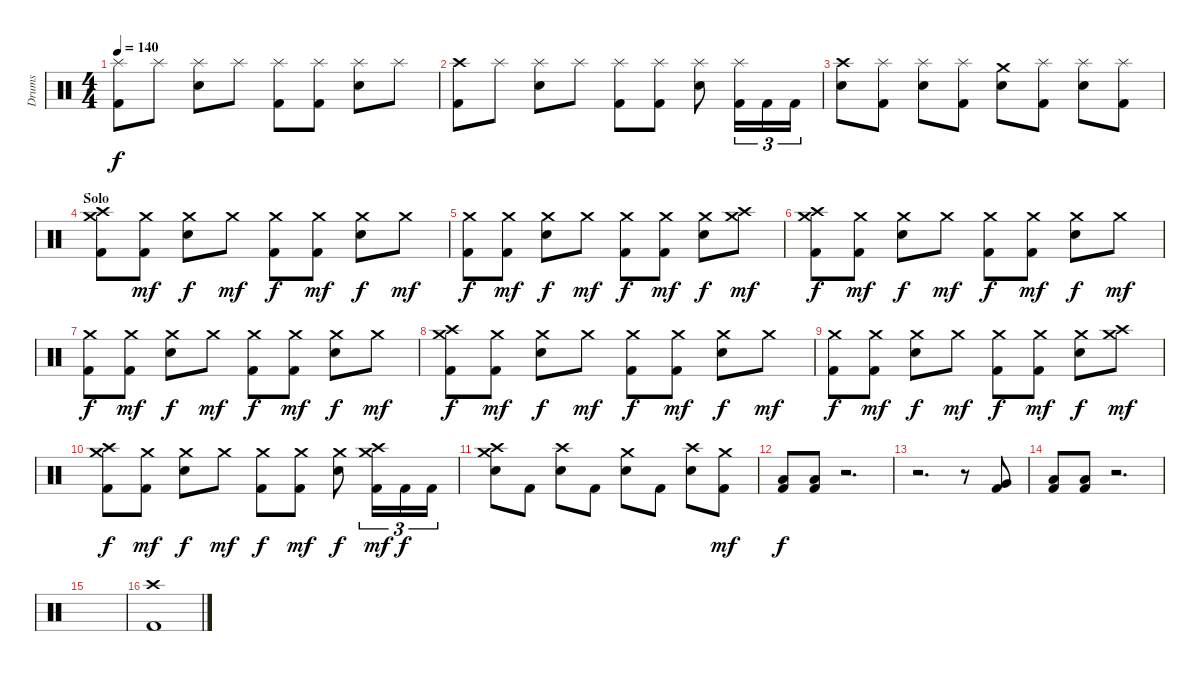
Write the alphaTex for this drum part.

\track ("Drums" "Drums") {instrument percussion}
\staff {score}
\articulation defaults
\ts (4 4)
\tempo 140
\clef neutral
\ks c
("Splash (hit)" "Kick (hit) 2").8{dy f} "Splash (hit)".8 ("Splash (hit)" "Snare (hit) 2").8 "Splash (hit)".8 ("Splash (hit)" "Kick (hit) 2").8 ("Splash (hit)" "Kick (hit) 2").8 ("Splash (hit)" "Snare (hit) 2").8 "Splash (hit)".8 |
("Crash high (hit)" "Kick (hit) 2").8 "Splash (hit)".8 ("Splash (hit)" "Snare (hit) 2").8 "Splash (hit)".8 ("Splash (hit)" "Kick (hit) 2").8 ("Splash (hit)" "Kick (hit) 2").8 ("Splash (hit)" "Snare (hit) 2").8 ("Splash (hit)" "Kick (hit) 2").16{tu (3 2)} "Kick (hit) 2".16{tu (3 2)} "Kick (hit) 2".16{tu (3 2)} |
("Crash high (hit)" "Snare (hit) 2").8 ("Splash (hit)" "Kick (hit) 2").8 ("Splash (hit)" "Snare (hit) 2").8 ("Splash (hit)" "Kick (hit) 2").8 ("Crash medium (hit)" "Snare (hit) 2").8 ("Splash (hit)" "Kick (hit) 2").8 ("Splash (hit)" "Snare (hit) 2").8 ("Splash (hit)" "Kick (hit) 2").8 |
\section ("" "Solo")
("Crash high (hit)" "Crash medium (hit)" "Kick (hit) 2").8 ("Crash medium (hit)" "Kick (hit) 2").8{dy mf} ("Crash medium (hit)" "Snare (hit) 2").8{dy f} "Crash medium (hit)".8{dy mf} ("Crash medium (hit)" "Kick (hit) 2").8{dy f} ("Crash medium (hit)" "Kick (hit) 2").8{dy mf} ("Crash medium (hit)" "Snare (hit) 2").8{dy f} "Crash medium (hit)".8{dy mf} |
("Crash medium (hit)" "Kick (hit) 2").8{dy f} ("Crash medium (hit)" "Kick (hit) 2").8{dy mf} ("Crash medium (hit)" "Snare (hit) 2").8{dy f} "Crash medium (hit)".8{dy mf} ("Crash medium (hit)" "Kick (hit) 2").8{dy f} ("Crash medium (hit)" "Kick (hit) 2").8{dy mf} ("Crash medium (hit)" "Snare (hit) 2").8{dy f} ("Crash high (hit)" "Crash medium (hit)").8{dy mf} |
("Crash high (hit)" "Crash medium (hit)" "Kick (hit) 2").8{dy f} ("Crash medium (hit)" "Kick (hit) 2").8{dy mf} ("Crash medium (hit)" "Snare (hit) 2").8{dy f} "Crash medium (hit)".8{dy mf} ("Crash medium (hit)" "Kick (hit) 2").8{dy f} ("Crash medium (hit)" "Kick (hit) 2").8{dy mf} ("Crash medium (hit)" "Snare (hit) 2").8{dy f} "Crash medium (hit)".8{dy mf} |
("Crash medium (hit)" "Kick (hit) 2").8{dy f} ("Crash medium (hit)" "Kick (hit) 2").8{dy mf} ("Crash medium (hit)" "Snare (hit) 2").8{dy f} "Crash medium (hit)".8{dy mf} ("Crash medium (hit)" "Kick (hit) 2").8{dy f} ("Crash medium (hit)" "Kick (hit) 2").8{dy mf} ("Crash medium (hit)" "Snare (hit) 2").8{dy f} "Crash medium (hit)".8{dy mf} |
("Crash high (hit)" "Crash medium (hit)" "Kick (hit) 2").8{dy f} ("Crash medium (hit)" "Kick (hit) 2").8{dy mf} ("Crash medium (hit)" "Snare (hit) 2").8{dy f} "Crash medium (hit)".8{dy mf} ("Crash medium (hit)" "Kick (hit) 2").8{dy f} ("Crash medium (hit)" "Kick (hit) 2").8{dy mf} ("Crash medium (hit)" "Snare (hit) 2").8{dy f} "Crash medium (hit)".8{dy mf} |
("Crash medium (hit)" "Kick (hit) 2").8{dy f} ("Crash medium (hit)" "Kick (hit) 2").8{dy mf} ("Crash medium (hit)" "Snare (hit) 2").8{dy f} "Crash medium (hit)".8{dy mf} ("Crash medium (hit)" "Kick (hit) 2").8{dy f} ("Crash medium (hit)" "Kick (hit) 2").8{dy mf} ("Crash medium (hit)" "Snare (hit) 2").8{dy f} ("Crash high (hit)" "Crash medium (hit)").8{dy mf} |
("Crash high (hit)" "Crash medium (hit)" "Kick (hit) 2").8{dy f} ("Crash medium (hit)" "Kick (hit) 2").8{dy mf} ("Crash medium (hit)" "Snare (hit) 2").8{dy f} "Crash medium (hit)".8{dy mf} ("Crash medium (hit)" "Kick (hit) 2").8{dy f} ("Crash medium (hit)" "Kick (hit) 2").8{dy mf} ("Crash medium (hit)" "Snare (hit) 2").8{dy f} ("Crash high (hit)" "Crash medium (hit)" "Kick (hit) 2").16{tu (3 2) dy mf} "Kick (hit) 2".16{tu (3 2) dy f} "Kick (hit) 2".16{tu (3 2)} |
("Crash high (hit)" "Crash medium (hit)" "Snare (hit) 2").8 "Kick (hit) 2".8 ("Crash high (hit)" "Snare (hit) 2").8 "Kick (hit) 2".8 ("Crash medium (hit)" "Snare (hit) 2").8 "Kick (hit) 2".8 ("Crash high (hit)" "Snare (hit) 2").8 ("Crash medium (hit)" "Kick (hit) 2").8{dy mf} |
("Low Tom (hit)" "Kick (hit) 2").8{dy f} ("Low Tom (hit)" "Kick (hit) 2").8 r.2{d} |
r.2{d} r.8 ("Very Low Tom (hit)" "Kick (hit) 2").8 |
("Low Tom (hit)" "Kick (hit) 2").8 ("Low Tom (hit)" "Kick (hit) 2").8 r.2{d} |
|
("Crash high (hit)" "Kick (hit) 2").1
